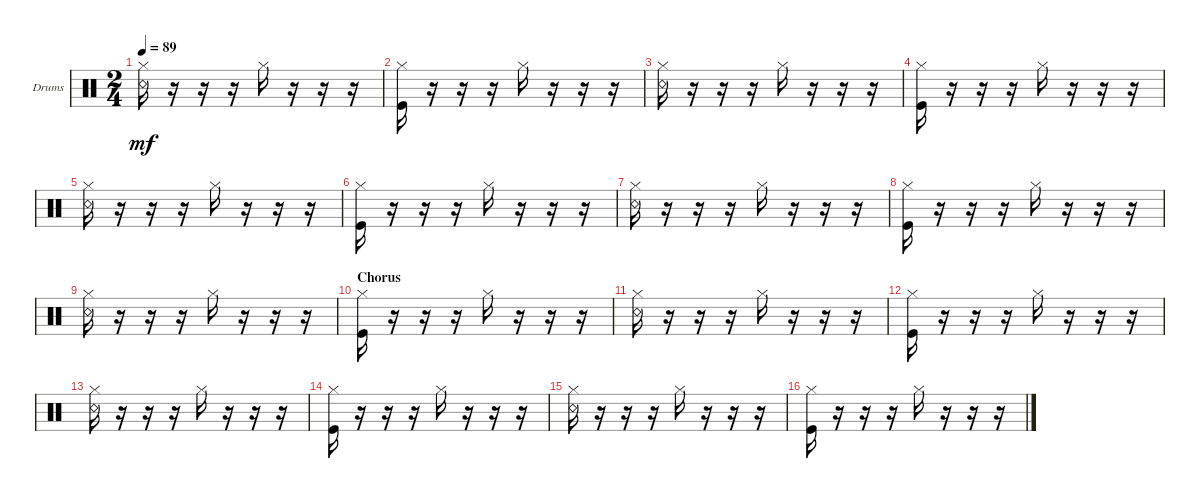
\bracketExtendMode groupsimilarinstruments
\firstSystemTrackNameOrientation horizontal
\otherSystemsTrackNameOrientation horizontal
\track ("Ryo" "Drums") {instrument percussion}
\staff {score}
\articulation defaults
\ts (2 4)
\tempo 89
\clef neutral
\ks c
("Snare (rim shot)" "Hi-Hat (closed)").16{dy mf} r.16 r.16 r.16 "Hi-Hat (closed)".16 r.16 r.16 r.16 |
("Kick (hit)" "Hi-Hat (closed)").16 r.16 r.16 r.16 "Hi-Hat (closed)".16 r.16 r.16 r.16 |
("Snare (rim shot)" "Hi-Hat (closed)").16 r.16 r.16 r.16 "Hi-Hat (closed)".16 r.16 r.16 r.16 |
("Kick (hit)" "Hi-Hat (closed)").16 r.16 r.16 r.16 "Hi-Hat (closed)".16 r.16 r.16 r.16 |
("Snare (rim shot)" "Hi-Hat (closed)").16 r.16 r.16 r.16 "Hi-Hat (closed)".16 r.16 r.16 r.16 |
("Kick (hit)" "Hi-Hat (closed)").16 r.16 r.16 r.16 "Hi-Hat (closed)".16 r.16 r.16 r.16 |
("Snare (rim shot)" "Hi-Hat (closed)").16 r.16 r.16 r.16 "Hi-Hat (closed)".16 r.16 r.16 r.16 |
("Kick (hit)" "Hi-Hat (closed)").16 r.16 r.16 r.16 "Hi-Hat (closed)".16 r.16 r.16 r.16 |
("Snare (rim shot)" "Hi-Hat (closed)").16 r.16 r.16 r.16 "Hi-Hat (closed)".16 r.16 r.16 r.16 |
\section ("" "Chorus")
("Kick (hit)" "Hi-Hat (closed)").16 r.16 r.16 r.16 "Hi-Hat (closed)".16 r.16 r.16 r.16 |
("Snare (rim shot)" "Hi-Hat (closed)").16 r.16 r.16 r.16 "Hi-Hat (closed)".16 r.16 r.16 r.16 |
("Kick (hit)" "Hi-Hat (closed)").16 r.16 r.16 r.16 "Hi-Hat (closed)".16 r.16 r.16 r.16 |
("Snare (rim shot)" "Hi-Hat (closed)").16 r.16 r.16 r.16 "Hi-Hat (closed)".16 r.16 r.16 r.16 |
("Kick (hit)" "Hi-Hat (closed)").16 r.16 r.16 r.16 "Hi-Hat (closed)".16 r.16 r.16 r.16 |
("Snare (rim shot)" "Hi-Hat (closed)").16 r.16 r.16 r.16 "Hi-Hat (closed)".16 r.16 r.16 r.16 |
("Kick (hit)" "Hi-Hat (closed)").16 r.16 r.16 r.16 "Hi-Hat (closed)".16 r.16 r.16 r.16
